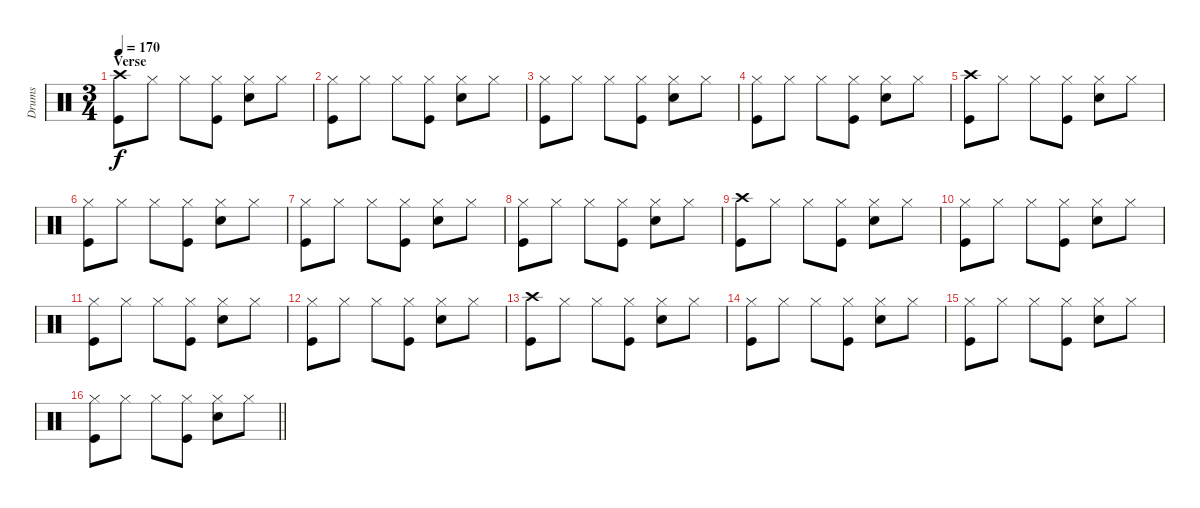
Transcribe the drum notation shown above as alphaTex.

\track ("Drums" "Drums") {instrument percussion}
\staff {score}
\articulation defaults
\ts (3 4)
\section ("" "Verse")
\tempo 170
\clef neutral
\ks c
("Crash high (hit)" "Kick (hit)").8{dy f} "Hi-Hat (closed)".8 "Hi-Hat (closed)".8 ("Hi-Hat (closed)" "Kick (hit)").8 ("Hi-Hat (closed)" "Snare (hit) 2").8 "Hi-Hat (closed)".8 |
("Hi-Hat (closed)" "Kick (hit)").8 "Hi-Hat (closed)".8 "Hi-Hat (closed)".8 ("Hi-Hat (closed)" "Kick (hit)").8 ("Hi-Hat (closed)" "Snare (hit) 2").8 "Hi-Hat (closed)".8 |
("Hi-Hat (closed)" "Kick (hit)").8 "Hi-Hat (closed)".8 "Hi-Hat (closed)".8 ("Hi-Hat (closed)" "Kick (hit)").8 ("Hi-Hat (closed)" "Snare (hit) 2").8 "Hi-Hat (closed)".8 |
("Hi-Hat (closed)" "Kick (hit)").8 "Hi-Hat (closed)".8 "Hi-Hat (closed)".8 ("Hi-Hat (closed)" "Kick (hit)").8 ("Hi-Hat (closed)" "Snare (hit) 2").8 "Hi-Hat (closed)".8 |
("Crash high (hit)" "Kick (hit)").8 "Hi-Hat (closed)".8 "Hi-Hat (closed)".8 ("Hi-Hat (closed)" "Kick (hit)").8 ("Hi-Hat (closed)" "Snare (hit) 2").8 "Hi-Hat (closed)".8 |
("Hi-Hat (closed)" "Kick (hit)").8 "Hi-Hat (closed)".8 "Hi-Hat (closed)".8 ("Hi-Hat (closed)" "Kick (hit)").8 ("Hi-Hat (closed)" "Snare (hit) 2").8 "Hi-Hat (closed)".8 |
("Hi-Hat (closed)" "Kick (hit)").8 "Hi-Hat (closed)".8 "Hi-Hat (closed)".8 ("Hi-Hat (closed)" "Kick (hit)").8 ("Hi-Hat (closed)" "Snare (hit) 2").8 "Hi-Hat (closed)".8 |
("Hi-Hat (closed)" "Kick (hit)").8 "Hi-Hat (closed)".8 "Hi-Hat (closed)".8 ("Hi-Hat (closed)" "Kick (hit)").8 ("Hi-Hat (closed)" "Snare (hit) 2").8 "Hi-Hat (closed)".8 |
("Crash high (hit)" "Kick (hit)").8 "Hi-Hat (closed)".8 "Hi-Hat (closed)".8 ("Hi-Hat (closed)" "Kick (hit)").8 ("Hi-Hat (closed)" "Snare (hit) 2").8 "Hi-Hat (closed)".8 |
("Hi-Hat (closed)" "Kick (hit)").8 "Hi-Hat (closed)".8 "Hi-Hat (closed)".8 ("Hi-Hat (closed)" "Kick (hit)").8 ("Hi-Hat (closed)" "Snare (hit) 2").8 "Hi-Hat (closed)".8 |
("Hi-Hat (closed)" "Kick (hit)").8 "Hi-Hat (closed)".8 "Hi-Hat (closed)".8 ("Hi-Hat (closed)" "Kick (hit)").8 ("Hi-Hat (closed)" "Snare (hit) 2").8 "Hi-Hat (closed)".8 |
("Hi-Hat (closed)" "Kick (hit)").8 "Hi-Hat (closed)".8 "Hi-Hat (closed)".8 ("Hi-Hat (closed)" "Kick (hit)").8 ("Hi-Hat (closed)" "Snare (hit) 2").8 "Hi-Hat (closed)".8 |
("Crash high (hit)" "Kick (hit)").8 "Hi-Hat (closed)".8 "Hi-Hat (closed)".8 ("Hi-Hat (closed)" "Kick (hit)").8 ("Hi-Hat (closed)" "Snare (hit) 2").8 "Hi-Hat (closed)".8 |
("Hi-Hat (closed)" "Kick (hit)").8 "Hi-Hat (closed)".8 "Hi-Hat (closed)".8 ("Hi-Hat (closed)" "Kick (hit)").8 ("Hi-Hat (closed)" "Snare (hit) 2").8 "Hi-Hat (closed)".8 |
("Hi-Hat (closed)" "Kick (hit)").8 "Hi-Hat (closed)".8 "Hi-Hat (closed)".8 ("Hi-Hat (closed)" "Kick (hit)").8 ("Hi-Hat (closed)" "Snare (hit) 2").8 "Hi-Hat (closed)".8 |
\barLineRight lightlight
("Hi-Hat (closed)" "Kick (hit)").8 "Hi-Hat (closed)".8 "Hi-Hat (closed)".8 ("Hi-Hat (closed)" "Kick (hit)").8 ("Hi-Hat (closed)" "Snare (hit) 2").8 "Hi-Hat (closed)".8
